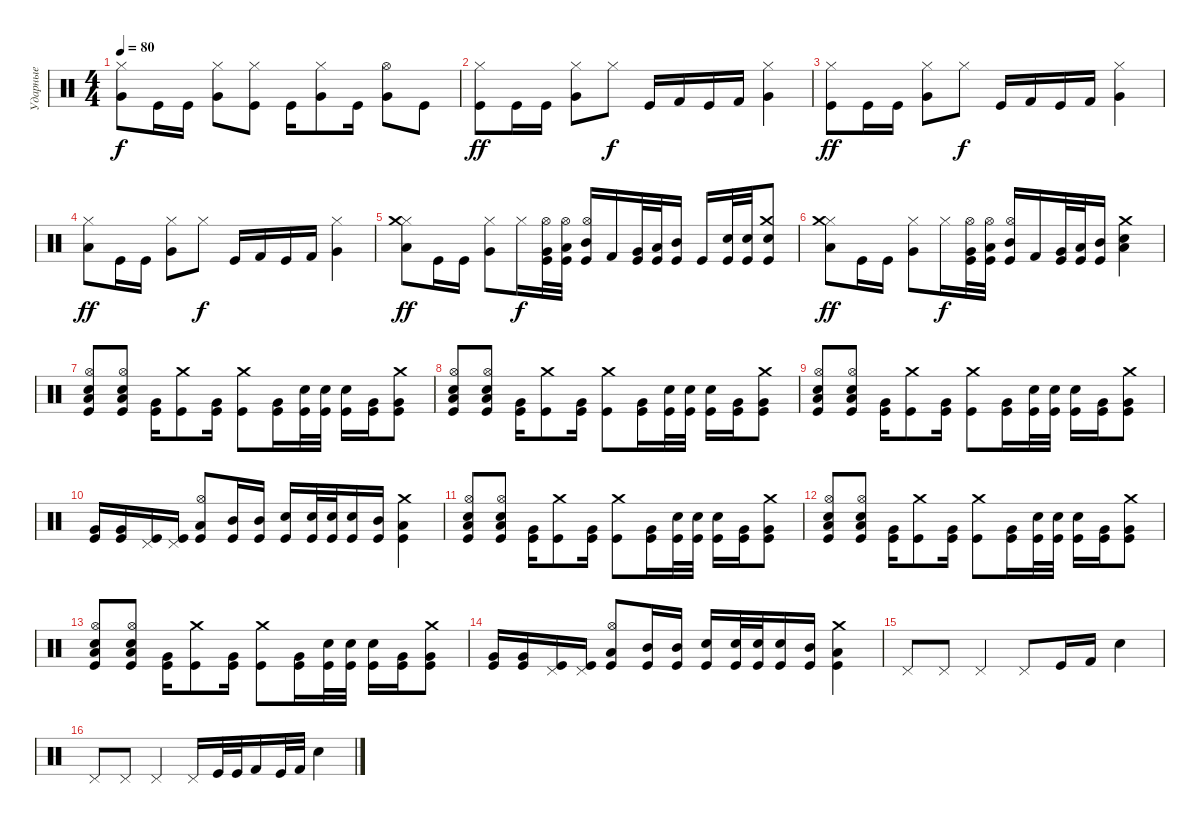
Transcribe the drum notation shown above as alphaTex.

\track ("Ударные" "Ударные") {instrument percussion}
\staff {score}
\articulation defaults
\ts (4 4)
\tempo 80
\clef neutral
\ks c
("Hi-Hat (closed)" "Very Low Tom (hit)").8{dy f} "Kick (hit)".16 "Kick (hit)".16 ("Hi-Hat (closed)" "Very Low Tom (hit)").8 ("Hi-Hat (closed)" "Kick (hit)").8 "Kick (hit)".16 ("Hi-Hat (closed)" "Very Low Tom (hit)").8 "Kick (hit)".16 ("Hi-Hat (open)" "Very Low Tom (hit)").8 "Kick (hit)".8 |
("Hi-Hat (closed)" "Kick (hit)").8{dy ff} "Kick (hit)".16 "Kick (hit)".16 ("Hi-Hat (closed)" "Very Low Tom (hit)").8 "Hi-Hat (closed)".8{dy f} "Kick (hit)".16 "Kick (hit) 2".16 "Kick (hit)".16 "Kick (hit) 2".16 ("Hi-Hat (closed)" "Very Low Tom (hit)").4 |
("Hi-Hat (closed)" "Kick (hit)").8{dy ff} "Kick (hit)".16 "Kick (hit)".16 ("Hi-Hat (closed)" "Very Low Tom (hit)").8 "Hi-Hat (closed)".8{dy f} "Kick (hit)".16 "Kick (hit) 2".16 "Kick (hit)".16 "Kick (hit) 2".16 ("Hi-Hat (closed)" "Very Low Tom (hit)").4 |
("Hi-Hat (closed)" "Low Tom (hit)").8{dy ff} "Kick (hit)".16 "Kick (hit)".16 ("Hi-Hat (closed)" "Very Low Tom (hit)").8 "Hi-Hat (closed)".8{dy f} "Kick (hit)".16 "Kick (hit) 2".16 "Kick (hit)".16 "Kick (hit) 2".16 ("Hi-Hat (closed)" "Very Low Tom (hit)").4 |
("Hi-Hat (closed)" "Crash medium (hit)" "Low Tom (hit)").8{dy ff} "Kick (hit)".16 "Kick (hit)".16 ("Hi-Hat (closed)" "Very Low Tom (hit)").8 "Hi-Hat (closed)".16{dy f} ("Hi-Hat (open)" "Very Low Tom (hit)" "Kick (hit)").32 ("Hi-Hat (open)" "Low Tom (hit)" "Kick (hit)").32 ("Hi-Hat (open)" "Mid Tom (hit)" "Kick (hit)").16 "Kick (hit) 2".16 ("Very Low Tom (hit)" "Kick (hit)").32 ("Low Tom (hit)" "Kick (hit)").32 ("Mid Tom (hit)" "Kick (hit)").16 "Kick (hit)".16 ("Electric Snare (hit)" "Kick (hit)").32 ("Electric Snare (hit)" "Kick (hit)").32 ("Crash medium (hit)" "Electric Snare (hit)" "Kick (hit)").8 |
("Hi-Hat (closed)" "Crash medium (hit)" "Low Tom (hit)").8{dy ff} "Kick (hit)".16 "Kick (hit)".16 ("Hi-Hat (closed)" "Very Low Tom (hit)").8 "Hi-Hat (closed)".16{dy f} ("Hi-Hat (open)" "Very Low Tom (hit)" "Kick (hit)").32 ("Hi-Hat (open)" "Low Tom (hit)" "Kick (hit)").32 ("Hi-Hat (open)" "Mid Tom (hit)" "Kick (hit)").16 "Kick (hit) 2".16 ("Very Low Tom (hit)" "Kick (hit)").32 ("Low Tom (hit)" "Kick (hit)").32 ("Mid Tom (hit)" "Kick (hit)").16 ("Crash medium (hit)" "Snare (hit) 2" "Low Tom (hit)").4 |
("Hi-Hat (open)" "Low Tom (hit)" "Snare (hit) 2" "Kick (hit)").8 ("Hi-Hat (open)" "Low Tom (hit)" "Snare (hit) 2" "Kick (hit)").8 ("Very Low Tom (hit)" "Kick (hit)").16 ("Crash medium (hit)" "Kick (hit)").8 ("Very Low Tom (hit)" "Kick (hit)").16 ("Crash medium (hit)" "Kick (hit)").8 ("Very Low Tom (hit)" "Kick (hit)").16 ("Electric Snare (hit)" "Kick (hit)").32 ("Electric Snare (hit)" "Kick (hit)").32 ("Electric Snare (hit)" "Kick (hit)").16 ("Very Low Tom (hit)" "Kick (hit)").16 ("Crash medium (hit)" "Very Low Tom (hit)" "Kick (hit)").8 |
("Hi-Hat (open)" "Low Tom (hit)" "Snare (hit) 2" "Kick (hit)").8 ("Hi-Hat (open)" "Low Tom (hit)" "Snare (hit) 2" "Kick (hit)").8 ("Very Low Tom (hit)" "Kick (hit)").16 ("Crash medium (hit)" "Kick (hit)").8 ("Very Low Tom (hit)" "Kick (hit)").16 ("Crash medium (hit)" "Kick (hit)").8 ("Very Low Tom (hit)" "Kick (hit)").16 ("Electric Snare (hit)" "Kick (hit)").32 ("Electric Snare (hit)" "Kick (hit)").32 ("Electric Snare (hit)" "Kick (hit)").16 ("Very Low Tom (hit)" "Kick (hit)").16 ("Crash medium (hit)" "Very Low Tom (hit)" "Kick (hit)").8 |
("Hi-Hat (open)" "Low Tom (hit)" "Snare (hit) 2" "Kick (hit)").8 ("Hi-Hat (open)" "Low Tom (hit)" "Snare (hit) 2" "Kick (hit)").8 ("Very Low Tom (hit)" "Kick (hit)").16 ("Crash medium (hit)" "Kick (hit)").8 ("Very Low Tom (hit)" "Kick (hit)").16 ("Crash medium (hit)" "Kick (hit)").8 ("Very Low Tom (hit)" "Kick (hit)").16 ("Electric Snare (hit)" "Kick (hit)").32 ("Electric Snare (hit)" "Kick (hit)").32 ("Electric Snare (hit)" "Kick (hit)").16 ("Very Low Tom (hit)" "Kick (hit)").16 ("Crash medium (hit)" "Very Low Tom (hit)" "Kick (hit)").8 |
("Very Low Tom (hit)" "Kick (hit)").16 ("Very Low Tom (hit)" "Kick (hit)").16 ("Pedal Hi-Hat (hit)" "Kick (hit)").16 ("Pedal Hi-Hat (hit)" "Kick (hit)").16 ("Hi-Hat (open)" "Low Tom (hit)" "Kick (hit)").8 ("Mid Tom (hit)" "Kick (hit)").16 ("Mid Tom (hit)" "Kick (hit)").16 ("Electric Snare (hit)" "Kick (hit)").16 ("Electric Snare (hit)" "Kick (hit)").32 ("Electric Snare (hit)" "Kick (hit)").32 ("Electric Snare (hit)" "Kick (hit)").16 ("Mid Tom (hit)" "Kick (hit)").16 ("Crash medium (hit)" "Low Tom (hit)" "Kick (hit)").4 |
("Hi-Hat (open)" "Low Tom (hit)" "Snare (hit) 2" "Kick (hit)").8 ("Hi-Hat (open)" "Low Tom (hit)" "Snare (hit) 2" "Kick (hit)").8 ("Very Low Tom (hit)" "Kick (hit)").16 ("Crash medium (hit)" "Kick (hit)").8 ("Very Low Tom (hit)" "Kick (hit)").16 ("Crash medium (hit)" "Kick (hit)").8 ("Very Low Tom (hit)" "Kick (hit)").16 ("Electric Snare (hit)" "Kick (hit)").32 ("Electric Snare (hit)" "Kick (hit)").32 ("Electric Snare (hit)" "Kick (hit)").16 ("Very Low Tom (hit)" "Kick (hit)").16 ("Crash medium (hit)" "Very Low Tom (hit)" "Kick (hit)").8 |
("Hi-Hat (open)" "Low Tom (hit)" "Snare (hit) 2" "Kick (hit)").8 ("Hi-Hat (open)" "Low Tom (hit)" "Snare (hit) 2" "Kick (hit)").8 ("Very Low Tom (hit)" "Kick (hit)").16 ("Crash medium (hit)" "Kick (hit)").8 ("Very Low Tom (hit)" "Kick (hit)").16 ("Crash medium (hit)" "Kick (hit)").8 ("Very Low Tom (hit)" "Kick (hit)").16 ("Electric Snare (hit)" "Kick (hit)").32 ("Electric Snare (hit)" "Kick (hit)").32 ("Electric Snare (hit)" "Kick (hit)").16 ("Very Low Tom (hit)" "Kick (hit)").16 ("Crash medium (hit)" "Very Low Tom (hit)" "Kick (hit)").8 |
("Hi-Hat (open)" "Low Tom (hit)" "Snare (hit) 2" "Kick (hit)").8 ("Hi-Hat (open)" "Low Tom (hit)" "Snare (hit) 2" "Kick (hit)").8 ("Very Low Tom (hit)" "Kick (hit)").16 ("Crash medium (hit)" "Kick (hit)").8 ("Very Low Tom (hit)" "Kick (hit)").16 ("Crash medium (hit)" "Kick (hit)").8 ("Very Low Tom (hit)" "Kick (hit)").16 ("Electric Snare (hit)" "Kick (hit)").32 ("Electric Snare (hit)" "Kick (hit)").32 ("Electric Snare (hit)" "Kick (hit)").16 ("Very Low Tom (hit)" "Kick (hit)").16 ("Crash medium (hit)" "Very Low Tom (hit)" "Kick (hit)").8 |
("Very Low Tom (hit)" "Kick (hit)").16 ("Very Low Tom (hit)" "Kick (hit)").16 ("Pedal Hi-Hat (hit)" "Kick (hit)").16 ("Pedal Hi-Hat (hit)" "Kick (hit)").16 ("Hi-Hat (open)" "Low Tom (hit)" "Kick (hit)").8 ("Mid Tom (hit)" "Kick (hit)").16 ("Mid Tom (hit)" "Kick (hit)").16 ("Electric Snare (hit)" "Kick (hit)").16 ("Electric Snare (hit)" "Kick (hit)").32 ("Electric Snare (hit)" "Kick (hit)").32 ("Electric Snare (hit)" "Kick (hit)").16 ("Mid Tom (hit)" "Kick (hit)").16 ("Crash medium (hit)" "Low Tom (hit)" "Kick (hit)").4 |
"Pedal Hi-Hat (hit)".8 "Pedal Hi-Hat (hit)".8 "Pedal Hi-Hat (hit)".4 "Pedal Hi-Hat (hit)".8 "Kick (hit)".16 "Kick (hit) 2".16 "Snare (hit) 2".4 |
"Pedal Hi-Hat (hit)".8 "Pedal Hi-Hat (hit)".8 "Pedal Hi-Hat (hit)".4 "Pedal Hi-Hat (hit)".16 "Kick (hit)".32 "Kick (hit)".32 "Kick (hit) 2".16 "Kick (hit)".32 "Kick (hit) 2".32 "Snare (hit) 2".4
